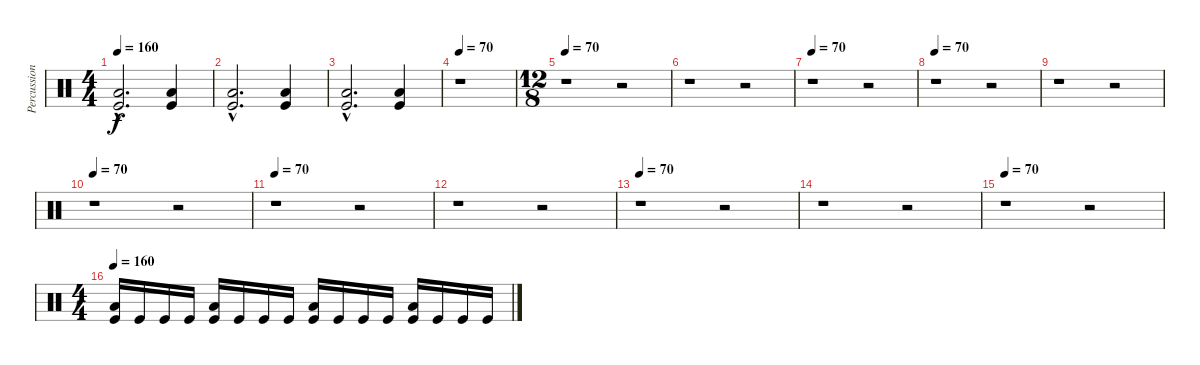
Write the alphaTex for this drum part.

\track ("Percussion" "Percussion") {instrument percussion}
\staff {score}
\articulation defaults
\ts (4 4)
\tempo 160
\clef neutral
\ks c
("Low Floor Tom (hit)"{hac} "Kick (hit)"{hac}).2{d dy f} ("Low Floor Tom (hit)" "Kick (hit)").4 |
("Low Floor Tom (hit)"{hac} "Kick (hit)"{hac}).2{d} ("Low Floor Tom (hit)" "Kick (hit)").4 |
("Low Floor Tom (hit)"{hac} "Kick (hit)"{hac}).2{d} ("Low Floor Tom (hit)" "Kick (hit)").4 |
\tempo 70
r.1 |
\ts (12 8)
\tempo 70
r.1 r.2 |
r.1 r.2 |
\tempo 70
r.1 r.2 |
\tempo 70
r.1 r.2 |
r.1 r.2 |
\tempo 70
r.1 r.2 |
\tempo 70
r.1 r.2 |
r.1 r.2 |
\tempo 70
r.1 r.2 |
r.1 r.2 |
\tempo 70
r.1 r.2 |
\ts (4 4)
\tempo 160
("Low Floor Tom (hit)" "Kick (hit)").16 "Kick (hit)".16 "Kick (hit)".16 "Kick (hit)".16 ("Low Floor Tom (hit)" "Kick (hit)").16 "Kick (hit)".16 "Kick (hit)".16 "Kick (hit)".16 ("Low Floor Tom (hit)" "Kick (hit)").16 "Kick (hit)".16 "Kick (hit)".16 "Kick (hit)".16 ("Low Floor Tom (hit)" "Kick (hit)").16 "Kick (hit)".16 "Kick (hit)".16 "Kick (hit)".16
